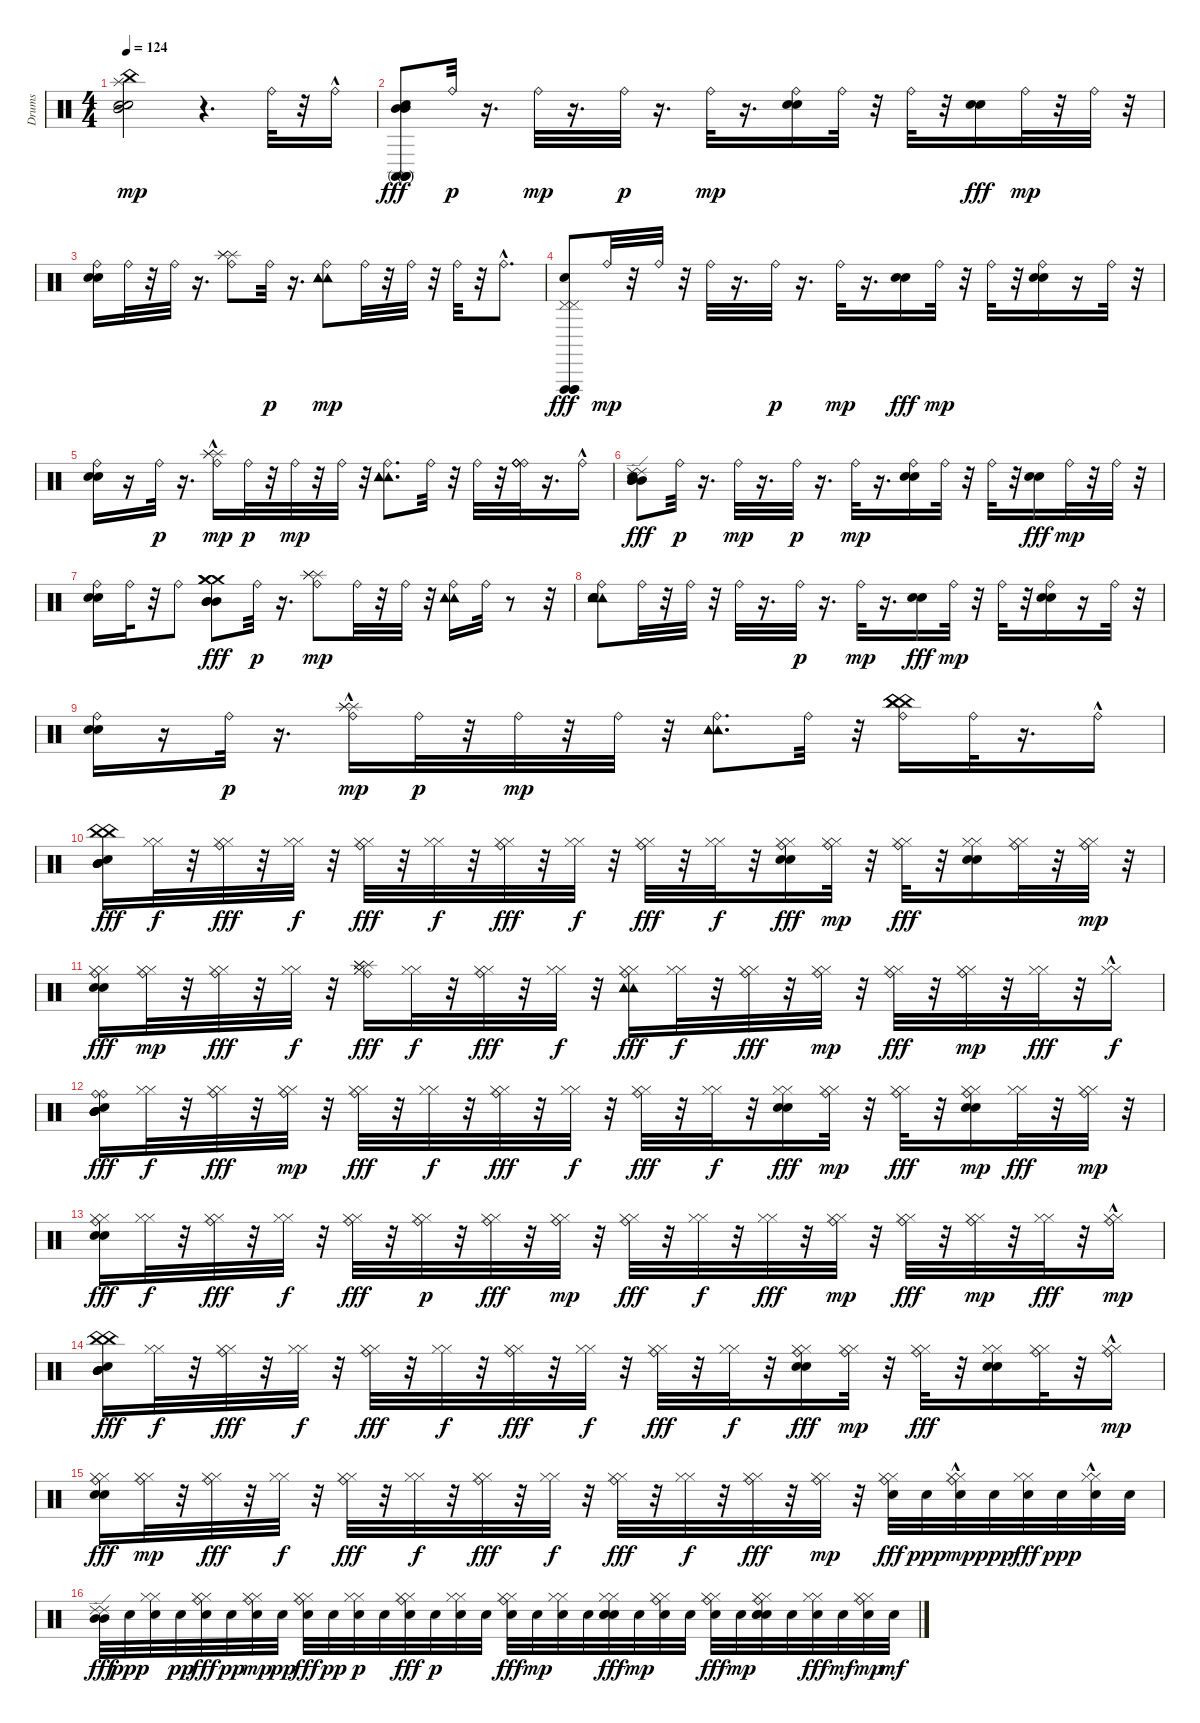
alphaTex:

\track ("Drums" "Drums") {instrument percussion}
\staff {score}
\articulation defaults
\ts (4 4)
\tempo 124
\clef neutral
\ks c
("Snare (hit)" "Mid Tom (hit)" "Snare (hit)" "Splash (hit)" "China (hit)").2{dy mp} r.4{d} "Ride (bell)".32 r.32 "Ride (bell)"{hac}.16 |
("Mid Tom (hit)" "Conga high (mute)" "Conga high (mute)" "Mid Tom (hit)" "Snare (hit)" "Conga high (mute)").8{dy fff} "Ride (bell)".32{dy p} r.16{d} "Ride (bell)".32{dy mp} r.16{d} "Ride (bell)".32{dy p} r.16{d} "Ride (bell)".32{dy mp} r.16{d} ("Snare (hit)" "Snare (hit)" "Ride (bell)").16 "Ride (bell)".32 r.32 "Ride (bell)".32 r.32 ("Snare (hit)" "Snare (hit)").16{dy fff} "Ride (bell)".32{dy mp} r.32 "Ride (bell)".32 r.32 |
("Snare (hit)" "Snare (hit)" "Ride (bell)").16 "Ride (bell)".32 r.32 "Ride (bell)".32 r.16{d} ("Splash (hit)" "Splash (hit)" "Splash (hit)" "Ride (bell)").8 "Ride (bell)".32{dy p} r.16{d} ("Tambourine (hit)" "Tambourine (hit)" "Tambourine (hit)" "Ride (bell)").8{dy mp} "Ride (bell)".32 r.32 "Ride (bell)".32 r.32 "Ride (bell)".32 r.32 "Ride (bell)"{hac}.8{d} |
("Pedal Hi-Hat (hit)" "Vibraslap (hit)" "Vibraslap (hit)" "Pedal Hi-Hat (hit)" "Snare (hit)" "Vibraslap (hit)").8{dy fff} "Ride (bell)".32{dy mp} r.32 "Ride (bell)".32 r.32 "Ride (bell)".32 r.16{d} "Ride (bell)".32{dy p} r.16{d} "Ride (bell)".32{dy mp} r.16{d} ("Snare (hit)" "Snare (hit)").16{dy fff} "Ride (bell)".32{dy mp} r.32 "Ride (bell)".32 r.32 ("Snare (hit)" "Snare (hit)" "Ride (bell)").16 r.16 "Ride (bell)".32 r.32 |
("Snare (hit)" "Snare (hit)" "Ride (bell)").16 r.16 "Ride (bell)".32{dy p} r.16{d} ("Splash (hit)"{hac} "Splash (hit)"{hac} "Splash (hit)"{hac} "Ride (bell)").16{dy mp} "Ride (bell)".32{dy p} r.32 "Ride (bell)".32{dy mp} r.32 "Ride (bell)".32 r.32 ("Tambourine (hit)" "Tambourine (hit)" "Tambourine (hit)" "Ride (bell)").8{d} "Ride (bell)".32 r.32 "Ride (bell)".32 r.32 ("Ride (bell)" "Ride (bell)" "Ride (bell)" "Ride (bell)").32 r.16{d} "Ride (bell)"{hac}.16 |
("Ride (edge) 2" "Mid Tom (hit)" "Mid Tom (hit)" "Ride (edge) 2" "Snare (hit)" "Mid Tom (hit)").8{dy fff} "Ride (bell)".32{dy p} r.16{d} "Ride (bell)".32{dy mp} r.16{d} "Ride (bell)".32{dy p} r.16{d} "Ride (bell)".32{dy mp} r.16{d} ("Snare (hit)" "Snare (hit)" "Ride (bell)").16 "Ride (bell)".32 r.32 "Ride (bell)".32 r.32 ("Snare (hit)" "Snare (hit)").16{dy fff} "Ride (bell)".32{dy mp} r.32 "Ride (bell)".32 r.32 |
("Snare (hit)" "Snare (hit)" "Ride (bell)").16 "Ride (bell)".32 r.32 "Ride (bell)".8 ("Crash medium (hit)" "Mid Tom (hit)" "Mid Tom (hit)" "Crash medium (hit)" "Mid Tom (hit)" "Crash medium (hit)").8{dy fff} "Ride (bell)".32{dy p} r.16{d} ("Splash (hit)" "Splash (hit)" "Splash (hit)" "Ride (bell)").8{dy mp} "Ride (bell)".32 r.32 "Ride (bell)".32 r.32 ("Tambourine (hit)" "Tambourine (hit)" "Tambourine (hit)" "Ride (bell)").16 "Ride (bell)".32 r.8 r.32 |
("Tambourine (hit)" "Tambourine (hit)" "Snare (hit)" "Tambourine (hit)" "Snare (hit)" "Ride (bell)").8 "Ride (bell)".32 r.32 "Ride (bell)".32 r.32 "Ride (bell)".32 r.16{d} "Ride (bell)".32{dy p} r.16{d} "Ride (bell)".32{dy mp} r.16{d} ("Snare (hit)" "Snare (hit)").16{dy fff} "Ride (bell)".32{dy mp} r.32 "Ride (bell)".32 r.32 ("Snare (hit)" "Snare (hit)" "Ride (bell)").16 r.16 "Ride (bell)".32 r.32 |
("Snare (hit)" "Snare (hit)" "Ride (bell)").16 r.16 "Ride (bell)".32{dy p} r.16{d} ("Splash (hit)"{hac} "Splash (hit)"{hac} "Splash (hit)"{hac} "Ride (bell)").16{dy mp} "Ride (bell)".32{dy p} r.32 "Ride (bell)".32{dy mp} r.32 "Ride (bell)".32 r.32 ("Tambourine (hit)" "Tambourine (hit)" "Tambourine (hit)" "Ride (bell)").8{d} "Ride (bell)".32 r.32 ("China (hit)" "China (hit)" "China (hit)" "Ride (bell)").16 "Ride (bell)".32 r.16{d} "Ride (bell)"{hac}.16 |
("China (hit)" "Mid Tom (hit)" "Mid Tom (hit)" "China (hit)" "Snare (hit)" "Mid Tom (hit)").16{dy fff} ("Hi-Hat (closed)" "Hi-Hat (closed)").32{dy f} r.32 ("Ride (bell)" "Hi-Hat (closed)" "Hi-Hat (closed)").32{dy fff} r.32 ("Hi-Hat (closed)" "Hi-Hat (closed)").32{dy f} r.32 ("Ride (bell)" "Hi-Hat (closed)" "Hi-Hat (closed)").32{dy fff} r.32 ("Hi-Hat (closed)" "Hi-Hat (closed)").32{dy f} r.32 ("Ride (bell)" "Hi-Hat (closed)" "Hi-Hat (closed)").32{dy fff} r.32 ("Hi-Hat (closed)" "Hi-Hat (closed)").32{dy f} r.32 ("Ride (bell)" "Hi-Hat (closed)" "Hi-Hat (closed)").32{dy fff} r.32 ("Hi-Hat (closed)" "Hi-Hat (closed)").32{dy f} r.32 ("Snare (hit)" "Snare (hit)" "Ride (bell)" "Hi-Hat (closed)" "Hi-Hat (closed)").16{dy fff} ("Ride (bell)" "Hi-Hat (closed)" "Hi-Hat (closed)").32{dy mp} r.32 ("Ride (bell)" "Hi-Hat (closed)" "Hi-Hat (closed)").32{dy fff} r.32 ("Snare (hit)" "Snare (hit)" "Hi-Hat (closed)" "Hi-Hat (closed)").16 ("Ride (bell)" "Hi-Hat (closed)" "Hi-Hat (closed)").32 r.32 ("Ride (bell)" "Hi-Hat (closed)" "Hi-Hat (closed)").32{dy mp} r.32 |
("Snare (hit)" "Snare (hit)" "Ride (bell)" "Hi-Hat (closed)" "Hi-Hat (closed)").16{dy fff} ("Ride (bell)" "Hi-Hat (closed)" "Hi-Hat (closed)").32{dy mp} r.32 ("Ride (bell)" "Hi-Hat (closed)" "Hi-Hat (closed)").32{dy fff} r.32 ("Hi-Hat (closed)" "Hi-Hat (closed)").32{dy f} r.32 ("Splash (hit)" "Splash (hit)" "Splash (hit)" "Ride (bell)" "Hi-Hat (closed)" "Hi-Hat (closed)").16{dy fff} ("Hi-Hat (closed)" "Hi-Hat (closed)").32{dy f} r.32 ("Ride (bell)" "Hi-Hat (closed)" "Hi-Hat (closed)").32{dy fff} r.32 ("Hi-Hat (closed)" "Hi-Hat (closed)").32{dy f} r.32 ("Tambourine (hit)" "Tambourine (hit)" "Tambourine (hit)" "Ride (bell)" "Hi-Hat (closed)" "Hi-Hat (closed)").16{dy fff} ("Hi-Hat (closed)" "Hi-Hat (closed)").32{dy f} r.32 ("Ride (bell)" "Hi-Hat (closed)" "Hi-Hat (closed)").32{dy fff} r.32 ("Ride (bell)" "Hi-Hat (closed)" "Hi-Hat (closed)").32{dy mp} r.32 ("Ride (bell)" "Hi-Hat (closed)" "Hi-Hat (closed)").32{dy fff} r.32 ("Ride (bell)" "Hi-Hat (closed)" "Hi-Hat (closed)").32{dy mp} r.32 ("Hi-Hat (closed)" "Hi-Hat (closed)").32{dy fff} r.32 ("Hi-Hat (closed)"{hac} "Hi-Hat (closed)"{hac}).16{dy f} |
("Ride (bell)" "Mid Tom (hit)" "Mid Tom (hit)" "Ride (bell)" "Snare (hit)" "Mid Tom (hit)").16{dy fff} ("Hi-Hat (closed)" "Hi-Hat (closed)").32{dy f} r.32 ("Ride (bell)" "Hi-Hat (closed)" "Hi-Hat (closed)").32{dy fff} r.32 ("Ride (bell)" "Hi-Hat (closed)" "Hi-Hat (closed)").32{dy mp} r.32 ("Ride (bell)" "Hi-Hat (closed)" "Hi-Hat (closed)").32{dy fff} r.32 ("Hi-Hat (closed)" "Hi-Hat (closed)").32{dy f} r.32 ("Ride (bell)" "Hi-Hat (closed)" "Hi-Hat (closed)").32{dy fff} r.32 ("Hi-Hat (closed)" "Hi-Hat (closed)").32{dy f} r.32 ("Ride (bell)" "Hi-Hat (closed)" "Hi-Hat (closed)").32{dy fff} r.32 ("Hi-Hat (closed)" "Hi-Hat (closed)").32{dy f} r.32 ("Snare (hit)" "Snare (hit)" "Hi-Hat (closed)" "Hi-Hat (closed)").16{dy fff} ("Ride (bell)" "Hi-Hat (closed)" "Hi-Hat (closed)").32{dy mp} r.32 ("Ride (bell)" "Hi-Hat (closed)" "Hi-Hat (closed)").32{dy fff} r.32 ("Snare (hit)" "Snare (hit)" "Ride (bell)" "Hi-Hat (closed)" "Hi-Hat (closed)").16{dy mp} ("Hi-Hat (closed)" "Hi-Hat (closed)").32{dy fff} r.32 ("Ride (bell)" "Hi-Hat (closed)" "Hi-Hat (closed)").32{dy mp} r.32 |
("Snare (hit)" "Snare (hit)" "Ride (bell)" "Hi-Hat (closed)" "Hi-Hat (closed)").16{dy fff} ("Hi-Hat (closed)" "Hi-Hat (closed)").32{dy f} r.32 ("Ride (bell)" "Hi-Hat (closed)" "Hi-Hat (closed)").32{dy fff} r.32 ("Hi-Hat (closed)" "Hi-Hat (closed)").32{dy f} r.32 ("Ride (bell)" "Hi-Hat (closed)" "Hi-Hat (closed)").32{dy fff} r.32 ("Ride (bell)" "Hi-Hat (closed)" "Hi-Hat (closed)").32{dy p} r.32 ("Ride (bell)" "Hi-Hat (closed)" "Hi-Hat (closed)").32{dy fff} r.32 ("Ride (bell)" "Hi-Hat (closed)" "Hi-Hat (closed)").32{dy mp} r.32 ("Ride (bell)" "Hi-Hat (closed)" "Hi-Hat (closed)").32{dy fff} r.32 ("Hi-Hat (closed)" "Hi-Hat (closed)").32{dy f} r.32 ("Hi-Hat (closed)" "Hi-Hat (closed)").32{dy fff} r.32 ("Ride (bell)" "Hi-Hat (closed)" "Hi-Hat (closed)").32{dy mp} r.32 ("Ride (bell)" "Hi-Hat (closed)" "Hi-Hat (closed)").32{dy fff} r.32 ("Ride (bell)" "Hi-Hat (closed)" "Hi-Hat (closed)").32{dy mp} r.32 ("Hi-Hat (closed)" "Hi-Hat (closed)").32{dy fff} r.32 ("Ride (bell)"{hac} "Hi-Hat (closed)"{hac} "Hi-Hat (closed)"{hac}).16{dy mp} |
("China (hit)" "Mid Tom (hit)" "Mid Tom (hit)" "China (hit)" "Snare (hit)" "Mid Tom (hit)").16{dy fff} ("Hi-Hat (closed)" "Hi-Hat (closed)").32{dy f} r.32 ("Ride (bell)" "Hi-Hat (closed)" "Hi-Hat (closed)").32{dy fff} r.32 ("Hi-Hat (closed)" "Hi-Hat (closed)").32{dy f} r.32 ("Ride (bell)" "Hi-Hat (closed)" "Hi-Hat (closed)").32{dy fff} r.32 ("Hi-Hat (closed)" "Hi-Hat (closed)").32{dy f} r.32 ("Ride (bell)" "Hi-Hat (closed)" "Hi-Hat (closed)").32{dy fff} r.32 ("Hi-Hat (closed)" "Hi-Hat (closed)").32{dy f} r.32 ("Ride (bell)" "Hi-Hat (closed)" "Hi-Hat (closed)").32{dy fff} r.32 ("Hi-Hat (closed)" "Hi-Hat (closed)").32{dy f} r.32 ("Snare (hit)" "Snare (hit)" "Ride (bell)" "Hi-Hat (closed)" "Hi-Hat (closed)").16{dy fff} ("Ride (bell)" "Hi-Hat (closed)" "Hi-Hat (closed)").32{dy mp} r.32 ("Ride (bell)" "Hi-Hat (closed)" "Hi-Hat (closed)").32{dy fff} r.32 ("Snare (hit)" "Snare (hit)" "Hi-Hat (closed)" "Hi-Hat (closed)").16 ("Ride (bell)" "Hi-Hat (closed)" "Hi-Hat (closed)").32 r.32 ("Ride (bell)"{hac} "Hi-Hat (closed)"{hac} "Hi-Hat (closed)"{hac}).16{dy mp} |
("Snare (hit)" "Snare (hit)" "Ride (bell)" "Hi-Hat (closed)" "Hi-Hat (closed)").16{dy fff} ("Ride (bell)" "Hi-Hat (closed)" "Hi-Hat (closed)").32{dy mp} r.32 ("Ride (bell)" "Hi-Hat (closed)" "Hi-Hat (closed)").32{dy fff} r.32 ("Hi-Hat (closed)" "Hi-Hat (closed)").32{dy f} r.32 ("Ride (bell)" "Hi-Hat (closed)" "Hi-Hat (closed)").32{dy fff} r.32 ("Hi-Hat (closed)" "Hi-Hat (closed)").32{dy f} r.32 ("Ride (bell)" "Hi-Hat (closed)" "Hi-Hat (closed)").32{dy fff} r.32 ("Hi-Hat (closed)" "Hi-Hat (closed)").32{dy f} r.32 ("Ride (bell)" "Hi-Hat (closed)" "Hi-Hat (closed)").32{dy fff} r.32 ("Hi-Hat (closed)" "Hi-Hat (closed)").32{dy f} r.32 ("Ride (bell)" "Hi-Hat (closed)" "Hi-Hat (closed)").32{dy fff} r.32 ("Ride (bell)" "Hi-Hat (closed)" "Hi-Hat (closed)").32{dy mp} r.32 ("Electric Snare (hit)" "Ride (bell)" "Hi-Hat (closed)" "Hi-Hat (closed)").32{dy fff} "Electric Snare (hit)".32{dy ppp} ("Electric Snare (hit)" "Ride (bell)"{hac} "Hi-Hat (closed)" "Hi-Hat (closed)").32{dy mp} "Electric Snare (hit)".32{dy ppp} ("Electric Snare (hit)" "Hi-Hat (closed)" "Hi-Hat (closed)").32{dy fff} "Electric Snare (hit)".32{dy ppp} ("Electric Snare (hit)" "Hi-Hat (closed)"{hac} "Hi-Hat (closed)"{hac}).32 "Electric Snare (hit)".32 |
("Mid Tom (hit)" "Ride (edge) 2" "Ride (edge) 2" "Mid Tom (hit)").32{dy fff} "Electric Snare (hit)".32{dy ppp} ("Electric Snare (hit)" "Hi-Hat (closed)" "Hi-Hat (closed)").32 "Electric Snare (hit)".32{dy pp} ("Electric Snare (hit)" "Ride (bell)" "Hi-Hat (closed)" "Hi-Hat (closed)").32{dy fff} "Electric Snare (hit)".32{dy pp} ("Electric Snare (hit)" "Ride (bell)" "Hi-Hat (closed)" "Hi-Hat (closed)").32{dy mp} "Electric Snare (hit)".32{dy pp} ("Electric Snare (hit)" "Ride (bell)" "Hi-Hat (closed)" "Hi-Hat (closed)").32{dy fff} "Electric Snare (hit)".32{dy pp} ("Electric Snare (hit)" "Hi-Hat (closed)" "Hi-Hat (closed)").32{dy p} "Electric Snare (hit)".32 ("Electric Snare (hit)" "Ride (bell)" "Hi-Hat (closed)" "Hi-Hat (closed)").32{dy fff} "Electric Snare (hit)".32{dy p} ("Electric Snare (hit)" "Hi-Hat (closed)" "Hi-Hat (closed)").32 "Electric Snare (hit)".32 ("Electric Snare (hit)" "Ride (bell)" "Hi-Hat (closed)" "Hi-Hat (closed)").32{dy fff} "Electric Snare (hit)".32{dy mp} ("Electric Snare (hit)" "Hi-Hat (closed)" "Hi-Hat (closed)").32 "Electric Snare (hit)".32 ("Snare (hit)" "Snare (hit)" "Electric Snare (hit)" "Hi-Hat (closed)" "Hi-Hat (closed)").32{dy fff} "Electric Snare (hit)".32{dy mp} ("Electric Snare (hit)" "Ride (bell)" "Hi-Hat (closed)" "Hi-Hat (closed)").32 "Electric Snare (hit)".32 ("Electric Snare (hit)" "Ride (bell)" "Hi-Hat (closed)" "Hi-Hat (closed)").32{dy fff} "Electric Snare (hit)".32{dy mp} ("Snare (hit)" "Snare (hit)" "Electric Snare (hit)" "Ride (bell)" "Hi-Hat (closed)" "Hi-Hat (closed)").32 "Electric Snare (hit)".32 ("Electric Snare (hit)" "Hi-Hat (closed)" "Hi-Hat (closed)").32{dy fff} "Electric Snare (hit)".32{dy mf} ("Electric Snare (hit)" "Ride (bell)" "Hi-Hat (closed)" "Hi-Hat (closed)").32{dy mp} "Electric Snare (hit)".32{dy mf}
